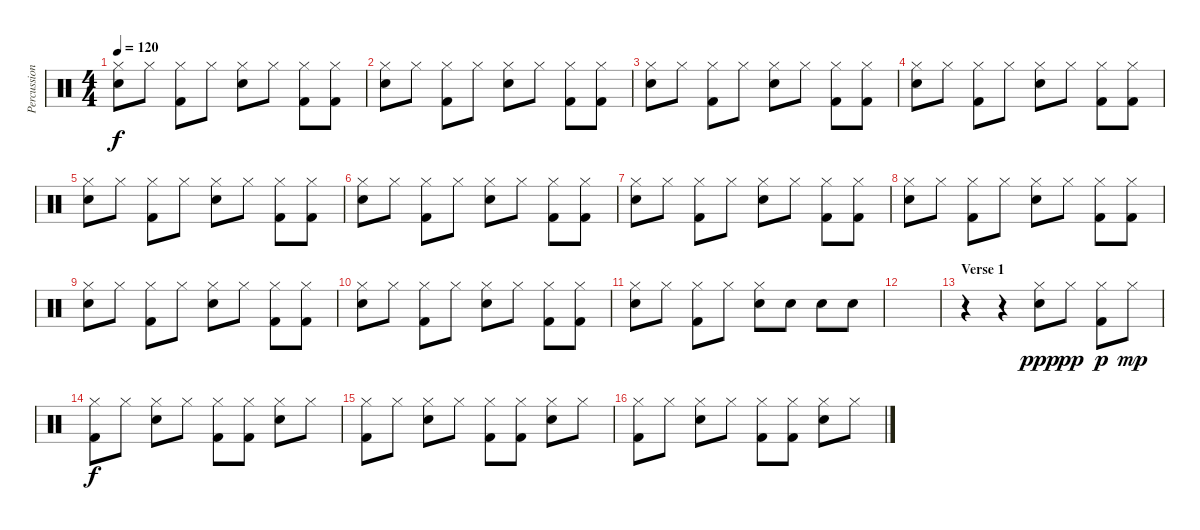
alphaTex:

\track ("Percussion" "Percussion") {instrument percussion}
\staff {score}
\articulation defaults
\ts (4 4)
\tempo 120
\clef neutral
\ks c
("Hi-Hat (closed)" "Snare (hit) 2").8{dy f} "Hi-Hat (closed)".8 ("Hi-Hat (closed)" "Kick (hit) 2").8 "Hi-Hat (closed)".8 ("Hi-Hat (closed)" "Snare (hit) 2").8 "Hi-Hat (closed)".8 ("Hi-Hat (closed)" "Kick (hit) 2").8 ("Hi-Hat (closed)" "Kick (hit) 2").8 |
("Hi-Hat (closed)" "Snare (hit) 2").8 "Hi-Hat (closed)".8 ("Hi-Hat (closed)" "Kick (hit) 2").8 "Hi-Hat (closed)".8 ("Hi-Hat (closed)" "Snare (hit) 2").8 "Hi-Hat (closed)".8 ("Hi-Hat (closed)" "Kick (hit) 2").8 ("Hi-Hat (closed)" "Kick (hit) 2").8 |
("Hi-Hat (closed)" "Snare (hit) 2").8 "Hi-Hat (closed)".8 ("Hi-Hat (closed)" "Kick (hit) 2").8 "Hi-Hat (closed)".8 ("Hi-Hat (closed)" "Snare (hit) 2").8 "Hi-Hat (closed)".8 ("Hi-Hat (closed)" "Kick (hit) 2").8 ("Hi-Hat (closed)" "Kick (hit) 2").8 |
("Hi-Hat (closed)" "Snare (hit) 2").8 "Hi-Hat (closed)".8 ("Hi-Hat (closed)" "Kick (hit) 2").8 "Hi-Hat (closed)".8 ("Hi-Hat (closed)" "Snare (hit) 2").8 "Hi-Hat (closed)".8 ("Hi-Hat (closed)" "Kick (hit) 2").8 ("Hi-Hat (closed)" "Kick (hit) 2").8 |
("Hi-Hat (closed)" "Snare (hit) 2").8 "Hi-Hat (closed)".8 ("Hi-Hat (closed)" "Kick (hit) 2").8 "Hi-Hat (closed)".8 ("Hi-Hat (closed)" "Snare (hit) 2").8 "Hi-Hat (closed)".8 ("Hi-Hat (closed)" "Kick (hit) 2").8 ("Hi-Hat (closed)" "Kick (hit) 2").8 |
("Hi-Hat (closed)" "Snare (hit) 2").8 "Hi-Hat (closed)".8 ("Hi-Hat (closed)" "Kick (hit) 2").8 "Hi-Hat (closed)".8 ("Hi-Hat (closed)" "Snare (hit) 2").8 "Hi-Hat (closed)".8 ("Hi-Hat (closed)" "Kick (hit) 2").8 ("Hi-Hat (closed)" "Kick (hit) 2").8 |
("Hi-Hat (closed)" "Snare (hit) 2").8 "Hi-Hat (closed)".8 ("Hi-Hat (closed)" "Kick (hit) 2").8 "Hi-Hat (closed)".8 ("Hi-Hat (closed)" "Snare (hit) 2").8 "Hi-Hat (closed)".8 ("Hi-Hat (closed)" "Kick (hit) 2").8 ("Hi-Hat (closed)" "Kick (hit) 2").8 |
("Hi-Hat (closed)" "Snare (hit) 2").8 "Hi-Hat (closed)".8 ("Hi-Hat (closed)" "Kick (hit) 2").8 "Hi-Hat (closed)".8 ("Hi-Hat (closed)" "Snare (hit) 2").8 "Hi-Hat (closed)".8 ("Hi-Hat (closed)" "Kick (hit) 2").8 ("Hi-Hat (closed)" "Kick (hit) 2").8 |
("Hi-Hat (closed)" "Snare (hit) 2").8 "Hi-Hat (closed)".8 ("Hi-Hat (closed)" "Kick (hit) 2").8 "Hi-Hat (closed)".8 ("Hi-Hat (closed)" "Snare (hit) 2").8 "Hi-Hat (closed)".8 ("Hi-Hat (closed)" "Kick (hit) 2").8 ("Hi-Hat (closed)" "Kick (hit) 2").8 |
("Hi-Hat (closed)" "Snare (hit) 2").8 "Hi-Hat (closed)".8 ("Hi-Hat (closed)" "Kick (hit) 2").8 "Hi-Hat (closed)".8 ("Hi-Hat (closed)" "Snare (hit) 2").8 "Hi-Hat (closed)".8 ("Hi-Hat (closed)" "Kick (hit) 2").8 ("Hi-Hat (closed)" "Kick (hit) 2").8 |
("Hi-Hat (closed)" "Snare (hit) 2").8 "Hi-Hat (closed)".8 ("Hi-Hat (closed)" "Kick (hit) 2").8 "Hi-Hat (closed)".8 ("Hi-Hat (closed)" "Snare (hit) 2").8 "Snare (hit) 2".8 "Snare (hit) 2".8 "Snare (hit) 2".8 |
|
\section ("" "Verse 1")
r.4 r.4 ("Hi-Hat (closed)" "Snare (hit) 2").8{dy ppp} "Hi-Hat (closed)".8{dy pp} ("Hi-Hat (closed)" "Kick (hit) 2").8{dy p} "Hi-Hat (closed)".8{dy mp} |
("Hi-Hat (closed)" "Kick (hit) 2").8{dy f} "Hi-Hat (closed)".8 ("Hi-Hat (closed)" "Snare (hit) 2").8 "Hi-Hat (closed)".8 ("Hi-Hat (closed)" "Kick (hit) 2").8 ("Hi-Hat (closed)" "Kick (hit) 2").8 ("Hi-Hat (closed)" "Snare (hit) 2").8 "Hi-Hat (closed)".8 |
("Hi-Hat (closed)" "Kick (hit) 2").8 "Hi-Hat (closed)".8 ("Hi-Hat (closed)" "Snare (hit) 2").8 "Hi-Hat (closed)".8 ("Hi-Hat (closed)" "Kick (hit) 2").8 ("Hi-Hat (closed)" "Kick (hit) 2").8 ("Hi-Hat (closed)" "Snare (hit) 2").8 "Hi-Hat (closed)".8 |
("Hi-Hat (closed)" "Kick (hit) 2").8 "Hi-Hat (closed)".8 ("Hi-Hat (closed)" "Snare (hit) 2").8 "Hi-Hat (closed)".8 ("Hi-Hat (closed)" "Kick (hit) 2").8 ("Hi-Hat (closed)" "Kick (hit) 2").8 ("Hi-Hat (closed)" "Snare (hit) 2").8 "Hi-Hat (closed)".8
